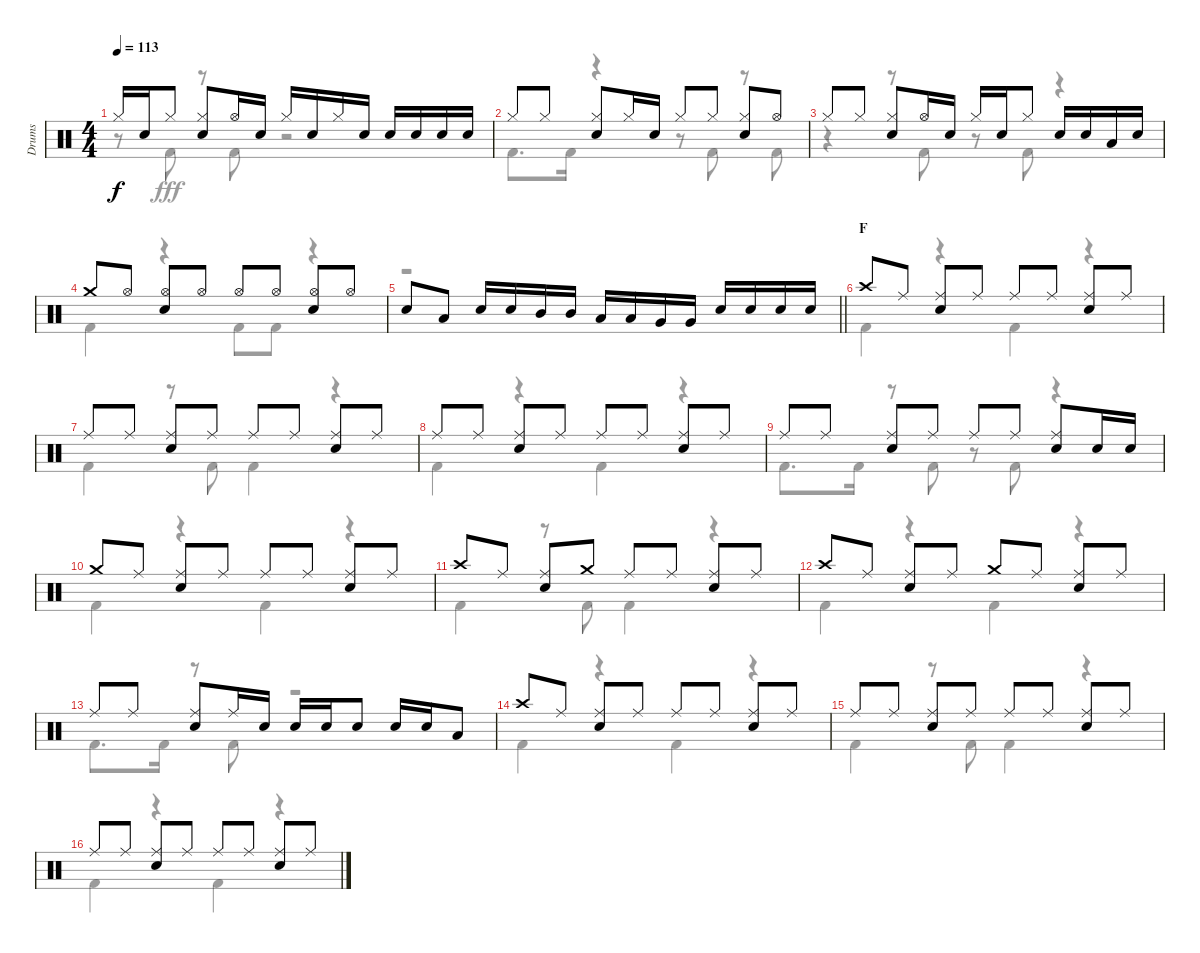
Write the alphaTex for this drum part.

\track ("Drums" "Drums") {instrument percussion}
\staff {score}
\articulation defaults
\voice
\ts (4 4)
\tempo 113
\clef neutral
\ks c "Hi-Hat (closed)".16{dy f} "Snare (hit) 2".16 "Hi-Hat (closed)".8
("Hi-Hat (closed)" "Snare (hit) 2").8 "Hi-Hat (open)".16 "Snare (hit) 2".16 "Hi-Hat (closed)".16 "Snare (hit) 2".16 "Hi-Hat (closed)".16 "Snare (hit) 2".16 "Snare (hit) 2".16 "Snare (hit) 2".16 "Snare (hit) 2".16 "Snare (hit) 2".16 |
"Hi-Hat (closed)".8 "Hi-Hat (closed)".8 ("Hi-Hat (closed)" "Snare (hit) 2").8 "Hi-Hat (closed)".16 "Snare (hit) 2".16 "Hi-Hat (closed)".8 "Hi-Hat (closed)".8 ("Hi-Hat (closed)" "Snare (hit) 2").8 "Hi-Hat (open)".8 |
"Hi-Hat (closed)".8 "Hi-Hat (closed)".8 ("Hi-Hat (closed)" "Snare (hit) 2").8 "Hi-Hat (open)".16 "Snare (hit) 2".16 "Hi-Hat (closed)".16 "Snare (hit) 2".16 "Hi-Hat (closed)".8 "Snare (hit) 2".16 "Snare (hit) 2".16 "Low Tom (hit)".16 "Snare (hit) 2".16 |
"Crash medium (hit)".8 "Hi-Hat (open)".8 ("Hi-Hat (open)" "Snare (hit) 2").8 "Hi-Hat (open)".8 "Hi-Hat (open)".8 "Hi-Hat (open)".8 ("Hi-Hat (open)" "Snare (hit) 2").8 "Hi-Hat (open)".8 |
\barLineRight lightlight "Snare (hit) 2".8 "Low Tom (hit)".8 "Snare (hit) 2".16 "Snare (hit) 2".16 "Mid Tom (hit)".16 "Mid Tom (hit)".16 "Low Tom (hit)".16 "Low Tom (hit)".16 "Very Low Tom (hit)".16 "Very Low Tom (hit)".16 "Snare (hit) 2".16 "Snare (hit) 2".16 "Snare (hit) 2".16 "Snare (hit) 2".16
|
\section ("" "F")
"Crash high (hit)".8 "Ride (middle)".8 ("Ride (middle)" "Snare (hit) 2").8 "Ride (middle)".8 "Ride (middle)".8 "Ride (middle)".8 ("Ride (middle)" "Snare (hit) 2").8 "Ride (middle)".8 |
"Ride (middle)".8 "Ride (middle)".8 ("Ride (middle)" "Snare (hit) 2").8 "Ride (middle)".8 "Ride (middle)".8 "Ride (middle)".8 ("Ride (middle)" "Snare (hit) 2").8 "Ride (middle)".8 |
"Ride (middle)".8 "Ride (middle)".8 ("Ride (middle)" "Snare (hit) 2").8 "Ride (middle)".8 "Ride (middle)".8 "Ride (middle)".8 ("Ride (middle)" "Snare (hit) 2").8 "Ride (middle)".8 |
"Ride (middle)".8 "Ride (middle)".8 ("Ride (middle)" "Snare (hit) 2").8 "Ride (middle)".8 "Ride (middle)".8 "Ride (middle)".8 ("Ride (middle)" "Snare (hit) 2").8 "Snare (hit) 2".16 "Snare (hit) 2".16 |
"Crash medium (hit)".8 "Ride (middle)".8 ("Ride (middle)" "Snare (hit) 2").8 "Ride (middle)".8 "Ride (middle)".8 "Ride (middle)".8 ("Ride (middle)" "Snare (hit) 2").8 "Ride (middle)".8 |
"Crash high (hit)".8 "Ride (middle)".8 ("Ride (middle)" "Snare (hit) 2").8 "Crash medium (hit)".8 "Ride (middle)".8 "Ride (middle)".8 ("Ride (middle)" "Snare (hit) 2").8 "Ride (middle)".8 |
"Crash high (hit)".8 "Ride (middle)".8 ("Ride (middle)" "Snare (hit) 2").8 "Ride (middle)".8 "Crash medium (hit)".8 "Ride (middle)".8 ("Ride (middle)" "Snare (hit) 2").8 "Ride (middle)".8 |
"Ride (middle)".8 "Ride (middle)".8 ("Ride (middle)" "Snare (hit) 2").8 "Ride (middle)".16 "Snare (hit) 2".16 "Snare (hit) 2".16 "Snare (hit) 2".16 "Snare (hit) 2".8 "Snare (hit) 2".16 "Snare (hit) 2".16 "Low Tom (hit)".8 |
"Crash high (hit)".8 "Ride (middle)".8 ("Ride (middle)" "Snare (hit) 2").8 "Ride (middle)".8 "Ride (middle)".8 "Ride (middle)".8 ("Ride (middle)" "Snare (hit) 2").8 "Ride (middle)".8 |
"Ride (middle)".8 "Ride (middle)".8 ("Ride (middle)" "Snare (hit) 2").8 "Ride (middle)".8 "Ride (middle)".8 "Ride (middle)".8 ("Ride (middle)" "Snare (hit) 2").8 "Ride (middle)".8 |
"Ride (middle)".8 "Ride (middle)".8 ("Ride (middle)" "Snare (hit) 2").8 "Ride (middle)".8 "Ride (middle)".8 "Ride (middle)".8 ("Ride (middle)" "Snare (hit) 2").8 "Ride (middle)".8
\voice
\clef neutral
\ottava regular
\simile none
\ks c
r.8{dy fff} "Kick (hit) 2".8 r.8 "Kick (hit) 2".8 r.2 |
"Kick (hit) 2".8{d} "Kick (hit) 2".16 r.4 r.8 "Kick (hit) 2".8 r.8 "Kick (hit) 2".8 |
r.4 r.8 "Kick (hit) 2".8 r.8 "Kick (hit) 2".8 r.4 |
"Kick (hit) 2".4 r.4 "Kick (hit) 2".8 "Kick (hit) 2".8 r.4 |
\barLineRight lightlight
r.1 |
"Kick (hit) 2".4 r.4 "Kick (hit) 2".4 r.4 |
"Kick (hit) 2".4 r.8 "Kick (hit) 2".8 "Kick (hit) 2".4 r.4 |
"Kick (hit) 2".4 r.4 "Kick (hit) 2".4 r.4 |
"Kick (hit) 2".8{d} "Kick (hit) 2".16 r.8 "Kick (hit) 2".8 r.8 "Kick (hit) 2".8 r.4 |
"Kick (hit) 2".4 r.4 "Kick (hit) 2".4 r.4 |
"Kick (hit) 2".4 r.8 "Kick (hit) 2".8 "Kick (hit) 2".4 r.4 |
"Kick (hit) 2".4 r.4 "Kick (hit) 2".4 r.4 |
"Kick (hit) 2".8{d} "Kick (hit) 2".16 r.8 "Kick (hit) 2".8 r.2 |
"Kick (hit) 2".4 r.4 "Kick (hit) 2".4 r.4 |
"Kick (hit) 2".4 r.8 "Kick (hit) 2".8 "Kick (hit) 2".4 r.4 |
"Kick (hit) 2".4 r.4 "Kick (hit) 2".4 r.4
